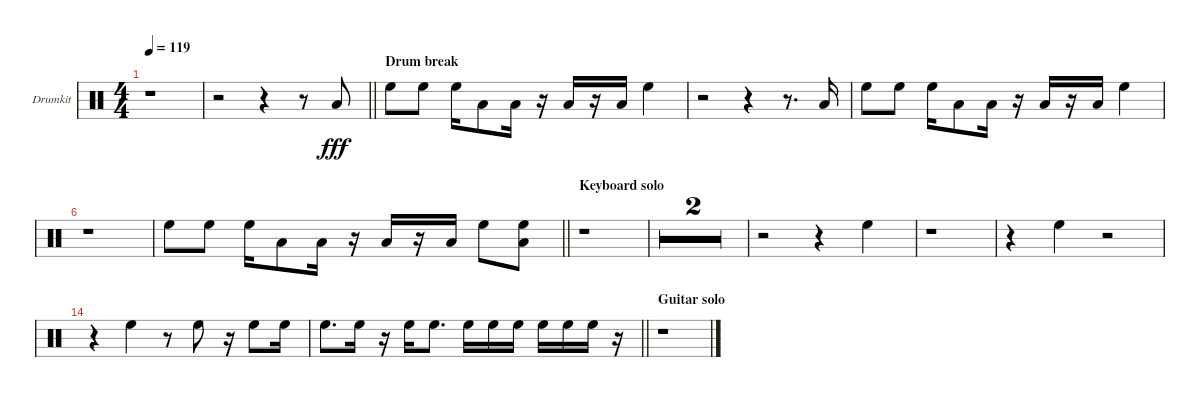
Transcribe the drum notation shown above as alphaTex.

\defaultSystemsLayout 4
\bracketExtendMode groupsimilarinstruments
\useSystemSignSeparator
\multiBarRest
\multiTrackTrackNamePolicy allsystems
\firstSystemTrackNameMode fullname
\firstSystemTrackNameOrientation horizontal
\otherSystemsTrackNameOrientation horizontal
\defaultBarNumberDisplay FirstOfSystem
\track ("Drumkit" "Drums") {multiBarRest instrument percussion}
\staff {score}
\articulation defaults
\ts (4 4)
\tempo 119
\clef neutral
\ks aminor
r.1{dy fff} |
\barLineRight lightlight
r.2 r.4 r.8 "Low Tom (hit)".8 |
\section ("" "Drum break")
"High Floor Tom (hit)".8 "High Floor Tom (hit)".8 "High Floor Tom (hit)".16 "Low Tom (hit)".8 "Low Tom (hit)".16 r.16 "Low Tom (hit)".16 r.16 "Low Tom (hit)".16 "High Floor Tom (hit)".4 |
r.2 r.4 r.8{d} "Low Tom (hit)".16 |
"High Floor Tom (hit)".8 "High Floor Tom (hit)".8 "High Floor Tom (hit)".16 "Low Tom (hit)".8 "Low Tom (hit)".16 r.16 "Low Tom (hit)".16 r.16 "Low Tom (hit)".16 "High Floor Tom (hit)".4 |
r.1 |
\barLineRight lightlight "High Floor Tom (hit)".8 "High Floor Tom (hit)".8 "High Floor Tom (hit)".16 "Low Tom (hit)".8 "Low Tom (hit)".16
r.16 "Low Tom (hit)".16 r.16 "Low Tom (hit)".16 "High Floor Tom (hit)".8 ("High Floor Tom (hit)" "Low Tom (hit)").8 |
\section ("" "Keyboard solo")
r.1 |
r.1 |
r.1 |
r.2 r.4 "High Floor Tom (hit)".4 |
r.1 |
r.4 "High Floor Tom (hit)".4 r.2 |
r.4 "High Floor Tom (hit)".4 r.8 "High Floor Tom (hit)".8 r.16 "High Floor Tom (hit)".8 "High Floor Tom (hit)".16 |
\barLineRight lightlight "High Floor Tom (hit)".8{d} "High Floor Tom (hit)".16
r.16 "High Floor Tom (hit)".16 "High Floor Tom (hit)".8{d} "High Floor Tom (hit)".16 "High Floor Tom (hit)".16 "High Floor Tom (hit)".16 "High Floor Tom (hit)".16 "High Floor Tom (hit)".16 "High Floor Tom (hit)".16 r.16 |
\section ("" "Guitar solo")
r.1
